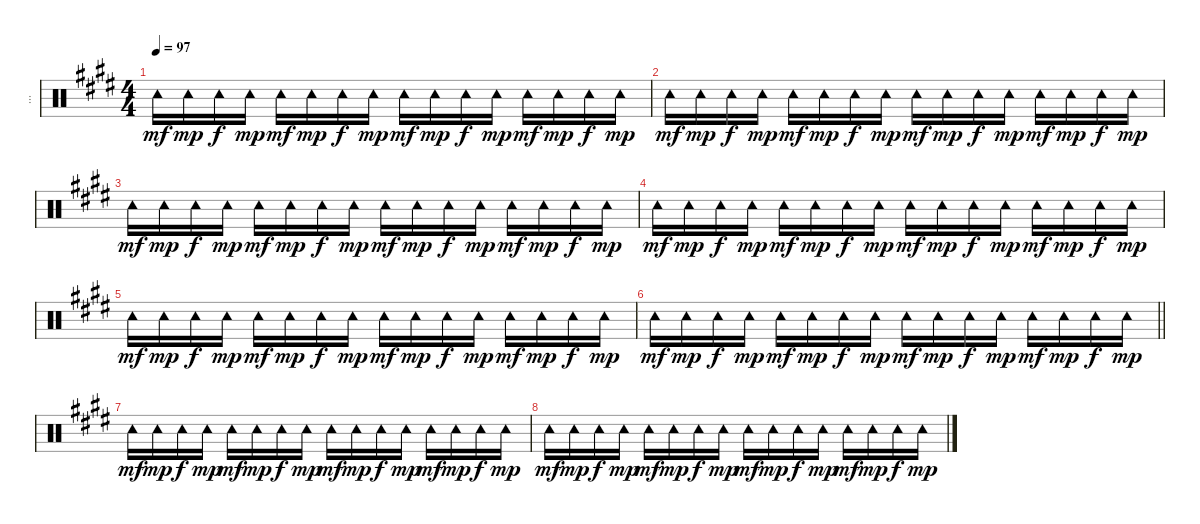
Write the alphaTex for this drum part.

\track ("..." "...") {instrument percussion}
\staff {score}
\articulation defaults
\ts (4 4)
\tempo 97
\clef neutral
\ks c#minor "Tambourine (hit)".16{dy mf} "Tambourine (hit)".16{dy mp} "Tambourine (hit)".16{dy f} "Tambourine (hit)".16{dy mp} "Tambourine (hit)".16{dy mf} "Tambourine (hit)".16{dy mp} "Tambourine (hit)".16{dy f} "Tambourine (hit)".16{dy mp} "Tambourine (hit)".16{dy mf} "Tambourine (hit)".16{dy mp} "Tambourine (hit)".16{dy f} "Tambourine (hit)".16{dy mp} "Tambourine (hit)".16{dy mf} "Tambourine (hit)".16{dy mp} "Tambourine (hit)".16{dy f} "Tambourine (hit)".16{dy mp}
|
"Tambourine (hit)".16{dy mf} "Tambourine (hit)".16{dy mp} "Tambourine (hit)".16{dy f} "Tambourine (hit)".16{dy mp} "Tambourine (hit)".16{dy mf} "Tambourine (hit)".16{dy mp} "Tambourine (hit)".16{dy f} "Tambourine (hit)".16{dy mp} "Tambourine (hit)".16{dy mf} "Tambourine (hit)".16{dy mp} "Tambourine (hit)".16{dy f} "Tambourine (hit)".16{dy mp} "Tambourine (hit)".16{dy mf} "Tambourine (hit)".16{dy mp} "Tambourine (hit)".16{dy f} "Tambourine (hit)".16{dy mp} |
"Tambourine (hit)".16{dy mf} "Tambourine (hit)".16{dy mp} "Tambourine (hit)".16{dy f} "Tambourine (hit)".16{dy mp} "Tambourine (hit)".16{dy mf} "Tambourine (hit)".16{dy mp} "Tambourine (hit)".16{dy f} "Tambourine (hit)".16{dy mp} "Tambourine (hit)".16{dy mf} "Tambourine (hit)".16{dy mp} "Tambourine (hit)".16{dy f} "Tambourine (hit)".16{dy mp} "Tambourine (hit)".16{dy mf} "Tambourine (hit)".16{dy mp} "Tambourine (hit)".16{dy f} "Tambourine (hit)".16{dy mp} |
"Tambourine (hit)".16{dy mf} "Tambourine (hit)".16{dy mp} "Tambourine (hit)".16{dy f} "Tambourine (hit)".16{dy mp} "Tambourine (hit)".16{dy mf} "Tambourine (hit)".16{dy mp} "Tambourine (hit)".16{dy f} "Tambourine (hit)".16{dy mp} "Tambourine (hit)".16{dy mf} "Tambourine (hit)".16{dy mp} "Tambourine (hit)".16{dy f} "Tambourine (hit)".16{dy mp} "Tambourine (hit)".16{dy mf} "Tambourine (hit)".16{dy mp} "Tambourine (hit)".16{dy f} "Tambourine (hit)".16{dy mp} |
"Tambourine (hit)".16{dy mf} "Tambourine (hit)".16{dy mp} "Tambourine (hit)".16{dy f} "Tambourine (hit)".16{dy mp} "Tambourine (hit)".16{dy mf} "Tambourine (hit)".16{dy mp} "Tambourine (hit)".16{dy f} "Tambourine (hit)".16{dy mp} "Tambourine (hit)".16{dy mf} "Tambourine (hit)".16{dy mp} "Tambourine (hit)".16{dy f} "Tambourine (hit)".16{dy mp} "Tambourine (hit)".16{dy mf} "Tambourine (hit)".16{dy mp} "Tambourine (hit)".16{dy f} "Tambourine (hit)".16{dy mp} |
\barLineRight lightlight "Tambourine (hit)".16{dy mf} "Tambourine (hit)".16{dy mp} "Tambourine (hit)".16{dy f} "Tambourine (hit)".16{dy mp} "Tambourine (hit)".16{dy mf} "Tambourine (hit)".16{dy mp} "Tambourine (hit)".16{dy f} "Tambourine (hit)".16{dy mp} "Tambourine (hit)".16{dy mf} "Tambourine (hit)".16{dy mp} "Tambourine (hit)".16{dy f} "Tambourine (hit)".16{dy mp} "Tambourine (hit)".16{dy mf} "Tambourine (hit)".16{dy mp} "Tambourine (hit)".16{dy f} "Tambourine (hit)".16{dy mp}
|
\section ("" "")
"Tambourine (hit)".16{dy mf} "Tambourine (hit)".16{dy mp} "Tambourine (hit)".16{dy f} "Tambourine (hit)".16{dy mp} "Tambourine (hit)".16{dy mf} "Tambourine (hit)".16{dy mp} "Tambourine (hit)".16{dy f} "Tambourine (hit)".16{dy mp} "Tambourine (hit)".16{dy mf} "Tambourine (hit)".16{dy mp} "Tambourine (hit)".16{dy f} "Tambourine (hit)".16{dy mp} "Tambourine (hit)".16{dy mf} "Tambourine (hit)".16{dy mp} "Tambourine (hit)".16{dy f} "Tambourine (hit)".16{dy mp} |
"Tambourine (hit)".16{dy mf} "Tambourine (hit)".16{dy mp} "Tambourine (hit)".16{dy f} "Tambourine (hit)".16{dy mp} "Tambourine (hit)".16{dy mf} "Tambourine (hit)".16{dy mp} "Tambourine (hit)".16{dy f} "Tambourine (hit)".16{dy mp} "Tambourine (hit)".16{dy mf} "Tambourine (hit)".16{dy mp} "Tambourine (hit)".16{dy f} "Tambourine (hit)".16{dy mp} "Tambourine (hit)".16{dy mf} "Tambourine (hit)".16{dy mp} "Tambourine (hit)".16{dy f} "Tambourine (hit)".16{dy mp}
